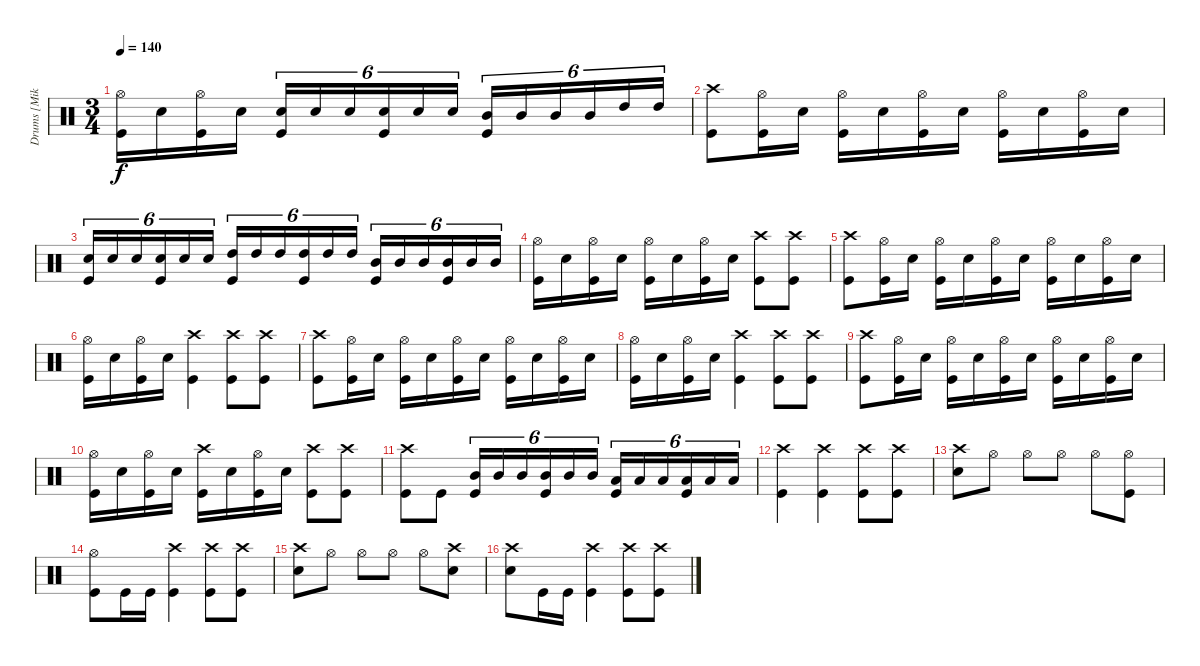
\track ("Drums [Mike Smith]" "Drums [Mik") {instrument percussion}
\staff {score}
\articulation defaults
\ts (3 4)
\tempo 140
\clef neutral
\ks c
("Hi-Hat (open)" "Kick (hit)").16{dy f} "Electric Snare (hit)".16 ("Hi-Hat (open)" "Kick (hit)").16 "Electric Snare (hit)".16 ("Electric Snare (hit)" "Kick (hit)").16{tu (6 4)} "Electric Snare (hit)".16{tu (6 4)} "Electric Snare (hit)".16{tu (6 4)} ("Electric Snare (hit)" "Kick (hit)").16{tu (6 4)} "Electric Snare (hit)".16{tu (6 4)} "Electric Snare (hit)".16{tu (6 4)} ("Mid Tom (hit)" "Kick (hit)").16{tu (6 4)} "Mid Tom (hit)".16{tu (6 4)} "Mid Tom (hit)".16{tu (6 4)} "Mid Tom (hit)".16{tu (6 4)} "High Tom (hit)".16{tu (6 4)} "High Tom (hit)".16{tu (6 4)} |
("Crash high (hit)" "Kick (hit)").8 ("Hi-Hat (open)" "Kick (hit)").16 "Electric Snare (hit)".16 ("Hi-Hat (open)" "Kick (hit)").16 "Electric Snare (hit)".16 ("Hi-Hat (open)" "Kick (hit)").16 "Electric Snare (hit)".16 ("Hi-Hat (open)" "Kick (hit)").16 "Electric Snare (hit)".16 ("Hi-Hat (open)" "Kick (hit)").16 "Electric Snare (hit)".16 |
("Electric Snare (hit)" "Kick (hit)").16{tu (6 4)} "Electric Snare (hit)".16{tu (6 4)} "Electric Snare (hit)".16{tu (6 4)} ("Electric Snare (hit)" "Kick (hit)").16{tu (6 4)} "Electric Snare (hit)".16{tu (6 4)} "Electric Snare (hit)".16{tu (6 4)} ("High Tom (hit)" "Kick (hit)").16{tu (6 4)} "High Tom (hit)".16{tu (6 4)} "High Tom (hit)".16{tu (6 4)} ("High Tom (hit)" "Kick (hit)").16{tu (6 4)} "High Tom (hit)".16{tu (6 4)} "High Tom (hit)".16{tu (6 4)} ("Mid Tom (hit)" "Kick (hit)").16{tu (6 4)} "Mid Tom (hit)".16{tu (6 4)} "Mid Tom (hit)".16{tu (6 4)} ("Mid Tom (hit)" "Kick (hit)").16{tu (6 4)} "Mid Tom (hit)".16{tu (6 4)} "Mid Tom (hit)".16{tu (6 4)} |
("Hi-Hat (open)" "Kick (hit)").16 "Electric Snare (hit)".16 ("Hi-Hat (open)" "Kick (hit)").16 "Electric Snare (hit)".16 ("Hi-Hat (open)" "Kick (hit)").16 "Electric Snare (hit)".16 ("Hi-Hat (open)" "Kick (hit)").16 "Electric Snare (hit)".16 ("Crash high (hit)" "Kick (hit)").8 ("Crash high (hit)" "Kick (hit)").8 |
("Crash high (hit)" "Kick (hit)").8 ("Hi-Hat (open)" "Kick (hit)").16 "Electric Snare (hit)".16 ("Hi-Hat (open)" "Kick (hit)").16 "Electric Snare (hit)".16 ("Hi-Hat (open)" "Kick (hit)").16 "Electric Snare (hit)".16 ("Hi-Hat (open)" "Kick (hit)").16 "Electric Snare (hit)".16 ("Hi-Hat (open)" "Kick (hit)").16 "Electric Snare (hit)".16 |
("Hi-Hat (open)" "Kick (hit)").16 "Electric Snare (hit)".16 ("Hi-Hat (open)" "Kick (hit)").16 "Electric Snare (hit)".16 ("Crash high (hit)" "Kick (hit)").4 ("Crash high (hit)" "Kick (hit)").8 ("Crash high (hit)" "Kick (hit)").8 |
("Crash high (hit)" "Kick (hit)").8 ("Hi-Hat (open)" "Kick (hit)").16 "Electric Snare (hit)".16 ("Hi-Hat (open)" "Kick (hit)").16 "Electric Snare (hit)".16 ("Hi-Hat (open)" "Kick (hit)").16 "Electric Snare (hit)".16 ("Hi-Hat (open)" "Kick (hit)").16 "Electric Snare (hit)".16 ("Hi-Hat (open)" "Kick (hit)").16 "Electric Snare (hit)".16 |
("Hi-Hat (open)" "Kick (hit)").16 "Electric Snare (hit)".16 ("Hi-Hat (open)" "Kick (hit)").16 "Electric Snare (hit)".16 ("Crash high (hit)" "Kick (hit)").4 ("Crash high (hit)" "Kick (hit)").8 ("Crash high (hit)" "Kick (hit)").8 |
("Crash high (hit)" "Kick (hit)").8 ("Hi-Hat (open)" "Kick (hit)").16 "Electric Snare (hit)".16 ("Hi-Hat (open)" "Kick (hit)").16 "Electric Snare (hit)".16 ("Hi-Hat (open)" "Kick (hit)").16 "Electric Snare (hit)".16 ("Hi-Hat (open)" "Kick (hit)").16 "Electric Snare (hit)".16 ("Hi-Hat (open)" "Kick (hit)").16 "Electric Snare (hit)".16 |
("Hi-Hat (open)" "Kick (hit)").16 "Electric Snare (hit)".16 ("Hi-Hat (open)" "Kick (hit)").16 "Electric Snare (hit)".16 ("Crash high (hit)" "Kick (hit)").16 "Electric Snare (hit)".16 ("Hi-Hat (open)" "Kick (hit)").16 "Electric Snare (hit)".16 ("Crash high (hit)" "Kick (hit)").8 ("Crash high (hit)" "Kick (hit)").8 |
("Crash high (hit)" "Kick (hit)").8 "Kick (hit)".8 ("Mid Tom (hit)" "Kick (hit)").16{tu (6 4)} "Mid Tom (hit)".16{tu (6 4)} "Mid Tom (hit)".16{tu (6 4)} ("Mid Tom (hit)" "Kick (hit)").16{tu (6 4)} "Mid Tom (hit)".16{tu (6 4)} "Mid Tom (hit)".16{tu (6 4)} ("Low Tom (hit)" "Kick (hit)").16{tu (6 4)} "Low Tom (hit)".16{tu (6 4)} "Low Tom (hit)".16{tu (6 4)} ("Low Tom (hit)" "Kick (hit)").16{tu (6 4)} "Low Tom (hit)".16{tu (6 4)} "Low Tom (hit)".16{tu (6 4)} |
("Crash high (hit)" "Kick (hit)").4 ("Crash high (hit)" "Kick (hit)").4 ("Crash high (hit)" "Kick (hit)").8 ("Crash high (hit)" "Kick (hit)").8 |
("Crash high (hit)" "Electric Snare (hit)").8 "Hi-Hat (open)".8 "Hi-Hat (open)".8 "Hi-Hat (open)".8 "Hi-Hat (open)".8 ("Hi-Hat (open)" "Kick (hit)").8 |
("Hi-Hat (open)" "Kick (hit)").8 "Kick (hit)".16 "Kick (hit)".16 ("Crash high (hit)" "Kick (hit)").4 ("Crash high (hit)" "Kick (hit)").8 ("Crash high (hit)" "Kick (hit)").8 |
("Crash high (hit)" "Electric Snare (hit)").8 "Hi-Hat (open)".8 "Hi-Hat (open)".8 "Hi-Hat (open)".8 "Hi-Hat (open)".8 ("Crash high (hit)" "Electric Snare (hit)").8 |
("Crash high (hit)" "Electric Snare (hit)").8 "Kick (hit)".16 "Kick (hit)".16 ("Crash high (hit)" "Kick (hit)").4 ("Crash high (hit)" "Kick (hit)").8 ("Crash high (hit)" "Kick (hit)").8
